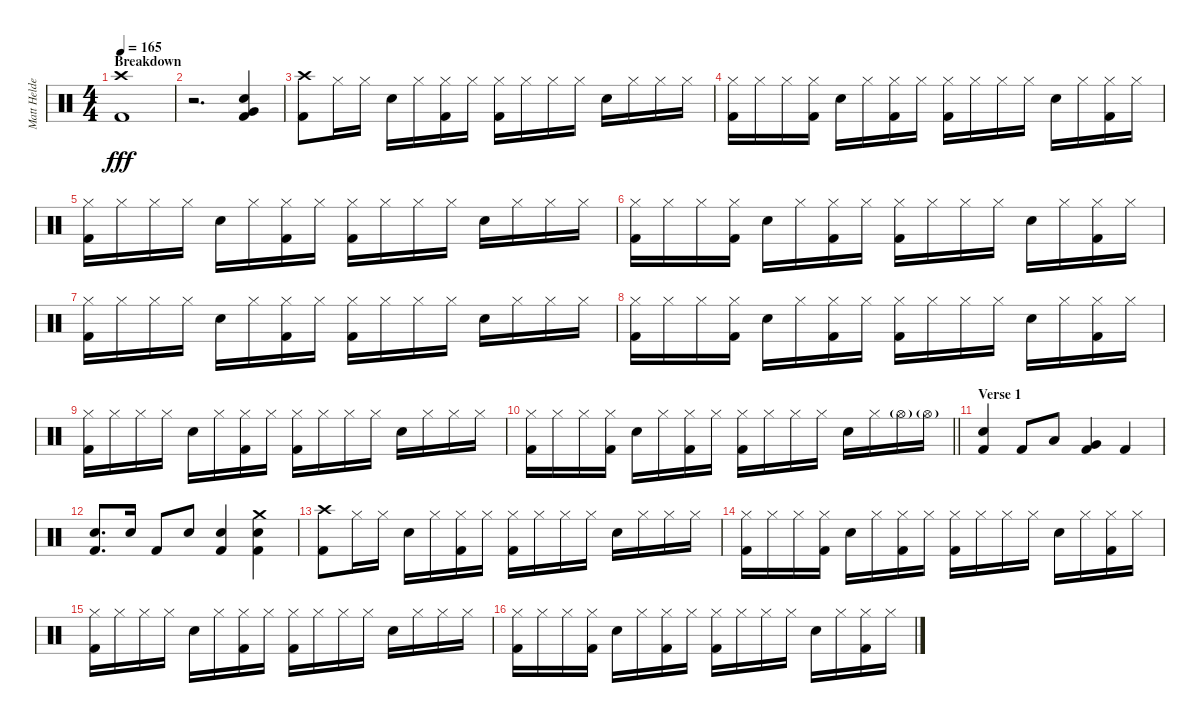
\track ("Matt Helders (Drums)" "Matt Helde") {instrument percussion}
\staff {score}
\articulation defaults
\ts (4 4)
\section ("" "Breakdown")
\tempo 165
\clef neutral
\ks c
("Crash high (hit)" "Kick (hit) 2").1{dy fff} |
r.2{d} ("Very Low Tom (hit)" "Electric Snare (hit)" "Kick (hit) 2").4 |
("Crash high (hit)" "Kick (hit) 2").8 "Hi-Hat (closed)".16 "Hi-Hat (closed)".16 "Electric Snare (hit)".16 "Hi-Hat (closed)".16 ("Hi-Hat (closed)" "Kick (hit) 2").16 "Hi-Hat (closed)".16 ("Hi-Hat (closed)" "Kick (hit) 2").16 "Hi-Hat (closed)".16 "Hi-Hat (closed)".16 "Hi-Hat (closed)".16 "Electric Snare (hit)".16 "Hi-Hat (closed)".16 "Hi-Hat (closed)".16 "Hi-Hat (closed)".16 |
("Hi-Hat (closed)" "Kick (hit) 2").16 "Hi-Hat (closed)".16 "Hi-Hat (closed)".16 ("Hi-Hat (closed)" "Kick (hit) 2").16 "Electric Snare (hit)".16 "Hi-Hat (closed)".16 ("Hi-Hat (closed)" "Kick (hit) 2").16 "Hi-Hat (closed)".16 ("Hi-Hat (closed)" "Kick (hit) 2").16 "Hi-Hat (closed)".16 "Hi-Hat (closed)".16 "Hi-Hat (closed)".16 "Electric Snare (hit)".16 "Hi-Hat (closed)".16 ("Hi-Hat (closed)" "Kick (hit) 2").16 "Hi-Hat (closed)".16 |
("Hi-Hat (closed)" "Kick (hit) 2").16 "Hi-Hat (closed)".16 "Hi-Hat (closed)".16 "Hi-Hat (closed)".16 "Electric Snare (hit)".16 "Hi-Hat (closed)".16 ("Hi-Hat (closed)" "Kick (hit) 2").16 "Hi-Hat (closed)".16 ("Hi-Hat (closed)" "Kick (hit) 2").16 "Hi-Hat (closed)".16 "Hi-Hat (closed)".16 "Hi-Hat (closed)".16 "Electric Snare (hit)".16 "Hi-Hat (closed)".16 "Hi-Hat (closed)".16 "Hi-Hat (closed)".16 |
("Hi-Hat (closed)" "Kick (hit) 2").16 "Hi-Hat (closed)".16 "Hi-Hat (closed)".16 ("Hi-Hat (closed)" "Kick (hit) 2").16 "Electric Snare (hit)".16 "Hi-Hat (closed)".16 ("Hi-Hat (closed)" "Kick (hit) 2").16 "Hi-Hat (closed)".16 ("Hi-Hat (closed)" "Kick (hit) 2").16 "Hi-Hat (closed)".16 "Hi-Hat (closed)".16 "Hi-Hat (closed)".16 "Electric Snare (hit)".16 "Hi-Hat (closed)".16 ("Hi-Hat (closed)" "Kick (hit) 2").16 "Hi-Hat (closed)".16 |
("Hi-Hat (closed)" "Kick (hit) 2").16 "Hi-Hat (closed)".16 "Hi-Hat (closed)".16 "Hi-Hat (closed)".16 "Electric Snare (hit)".16 "Hi-Hat (closed)".16 ("Hi-Hat (closed)" "Kick (hit) 2").16 "Hi-Hat (closed)".16 ("Hi-Hat (closed)" "Kick (hit) 2").16 "Hi-Hat (closed)".16 "Hi-Hat (closed)".16 "Hi-Hat (closed)".16 "Electric Snare (hit)".16 "Hi-Hat (closed)".16 "Hi-Hat (closed)".16 "Hi-Hat (closed)".16 |
("Hi-Hat (closed)" "Kick (hit) 2").16 "Hi-Hat (closed)".16 "Hi-Hat (closed)".16 ("Hi-Hat (closed)" "Kick (hit) 2").16 "Electric Snare (hit)".16 "Hi-Hat (closed)".16 ("Hi-Hat (closed)" "Kick (hit) 2").16 "Hi-Hat (closed)".16 ("Hi-Hat (closed)" "Kick (hit) 2").16 "Hi-Hat (closed)".16 "Hi-Hat (closed)".16 "Hi-Hat (closed)".16 "Electric Snare (hit)".16 "Hi-Hat (closed)".16 ("Hi-Hat (closed)" "Kick (hit) 2").16 "Hi-Hat (closed)".16 |
("Hi-Hat (closed)" "Kick (hit) 2").16 "Hi-Hat (closed)".16 "Hi-Hat (closed)".16 "Hi-Hat (closed)".16 "Electric Snare (hit)".16 "Hi-Hat (closed)".16 ("Hi-Hat (closed)" "Kick (hit) 2").16 "Hi-Hat (closed)".16 ("Hi-Hat (closed)" "Kick (hit) 2").16 "Hi-Hat (closed)".16 "Hi-Hat (closed)".16 "Hi-Hat (closed)".16 "Electric Snare (hit)".16 "Hi-Hat (closed)".16 "Hi-Hat (closed)".16 "Hi-Hat (closed)".16 |
\barLineRight lightlight
("Hi-Hat (closed)" "Kick (hit) 2").16 "Hi-Hat (closed)".16 "Hi-Hat (closed)".16 ("Hi-Hat (closed)" "Kick (hit) 2").16 "Electric Snare (hit)".16 "Hi-Hat (closed)".16 ("Hi-Hat (closed)" "Kick (hit) 2").16 "Hi-Hat (closed)".16 ("Hi-Hat (closed)" "Kick (hit) 2").16 "Hi-Hat (closed)".16 "Hi-Hat (closed)".16 "Hi-Hat (closed)".16 "Electric Snare (hit)".16 "Hi-Hat (closed)".16 "Hi-Hat (open)"{g}.16 "Hi-Hat (open)"{g}.16 |
\section ("" "Verse 1")
("Electric Snare (hit)" "Kick (hit) 2").4 "Kick (hit) 2".8 "Low Tom (hit)".8 ("Very Low Tom (hit)" "Kick (hit) 2").4 "Kick (hit) 2".4 |
("Electric Snare (hit)" "Kick (hit) 2").8{d} "Electric Snare (hit)".16 "Kick (hit) 2".8 "Electric Snare (hit)".8 ("Electric Snare (hit)" "Kick (hit) 2").4 ("Crash medium (hit)" "Electric Snare (hit)" "Kick (hit) 2").4 |
("Crash high (hit)" "Kick (hit) 2").8 "Hi-Hat (closed)".16 "Hi-Hat (closed)".16 "Electric Snare (hit)".16 "Hi-Hat (closed)".16 ("Hi-Hat (closed)" "Kick (hit) 2").16 "Hi-Hat (closed)".16 ("Hi-Hat (closed)" "Kick (hit) 2").16 "Hi-Hat (closed)".16 "Hi-Hat (closed)".16 "Hi-Hat (closed)".16 "Electric Snare (hit)".16 "Hi-Hat (closed)".16 "Hi-Hat (closed)".16 "Hi-Hat (closed)".16 |
("Hi-Hat (closed)" "Kick (hit) 2").16 "Hi-Hat (closed)".16 "Hi-Hat (closed)".16 ("Hi-Hat (closed)" "Kick (hit) 2").16 "Electric Snare (hit)".16 "Hi-Hat (closed)".16 ("Hi-Hat (closed)" "Kick (hit) 2").16 "Hi-Hat (closed)".16 ("Hi-Hat (closed)" "Kick (hit) 2").16 "Hi-Hat (closed)".16 "Hi-Hat (closed)".16 "Hi-Hat (closed)".16 "Electric Snare (hit)".16 "Hi-Hat (closed)".16 ("Hi-Hat (closed)" "Kick (hit) 2").16 "Hi-Hat (closed)".16 |
("Hi-Hat (closed)" "Kick (hit) 2").16 "Hi-Hat (closed)".16 "Hi-Hat (closed)".16 "Hi-Hat (closed)".16 "Electric Snare (hit)".16 "Hi-Hat (closed)".16 ("Hi-Hat (closed)" "Kick (hit) 2").16 "Hi-Hat (closed)".16 ("Hi-Hat (closed)" "Kick (hit) 2").16 "Hi-Hat (closed)".16 "Hi-Hat (closed)".16 "Hi-Hat (closed)".16 "Electric Snare (hit)".16 "Hi-Hat (closed)".16 "Hi-Hat (closed)".16 "Hi-Hat (closed)".16 |
("Hi-Hat (closed)" "Kick (hit) 2").16 "Hi-Hat (closed)".16 "Hi-Hat (closed)".16 ("Hi-Hat (closed)" "Kick (hit) 2").16 "Electric Snare (hit)".16 "Hi-Hat (closed)".16 ("Hi-Hat (closed)" "Kick (hit) 2").16 "Hi-Hat (closed)".16 ("Hi-Hat (closed)" "Kick (hit) 2").16 "Hi-Hat (closed)".16 "Hi-Hat (closed)".16 "Hi-Hat (closed)".16 "Electric Snare (hit)".16 "Hi-Hat (closed)".16 ("Hi-Hat (closed)" "Kick (hit) 2").16 "Hi-Hat (closed)".16
